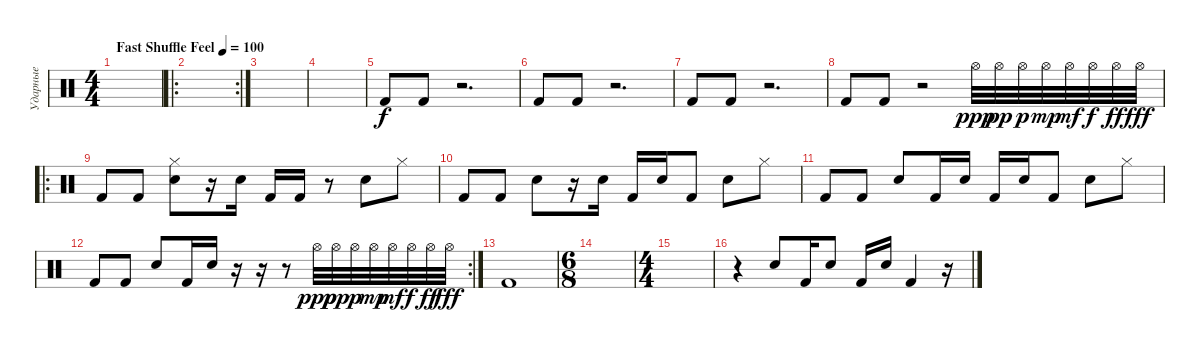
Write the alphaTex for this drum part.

\track ("Ударные" "Ударные") {instrument percussion}
\staff {score}
\articulation defaults
\ts (4 4)
\tempo (100 "Fast Shuffle Feel")
\clef neutral
\ks c
|
\ro
\rc 2
|
|
|
"Kick (hit) 2".8 "Kick (hit) 2".8 r.2{d} |
"Kick (hit) 2".8 "Kick (hit) 2".8 r.2{d} |
"Kick (hit) 2".8 "Kick (hit) 2".8 r.2{d} |
"Kick (hit) 2".8 "Kick (hit) 2".8 r.2 "Hi-Hat (open)".32{dy ppp} "Hi-Hat (open)".32{dy pp} "Hi-Hat (open)".32{dy p} "Hi-Hat (open)".32{dy mp} "Hi-Hat (open)".32{dy mf} "Hi-Hat (open)".32{dy f} "Hi-Hat (open)".32{dy ff} "Hi-Hat (open)".32{dy fff} |
\ro "Kick (hit) 2".8 "Kick (hit) 2".8
("Hi-Hat (closed)" "Snare (hit) 2").8 r.16 "Snare (hit) 2".16 "Kick (hit) 2".16 "Kick (hit) 2".16 r.8 "Snare (hit) 2".8 "Hi-Hat (closed)".8 |
"Kick (hit) 2".8 "Kick (hit) 2".8 "Snare (hit) 2".8 r.16 "Snare (hit) 2".16 "Kick (hit) 2".16 "Snare (hit) 2".16 "Kick (hit) 2".8 "Snare (hit) 2".8 "Hi-Hat (closed)".8 |
"Kick (hit) 2".8 "Kick (hit) 2".8 "Snare (hit) 2".8 "Kick (hit) 2".16 "Snare (hit) 2".16 "Kick (hit) 2".16 "Snare (hit) 2".16 "Kick (hit) 2".8 "Snare (hit) 2".8 "Hi-Hat (closed)".8 |
\rc 2 "Kick (hit) 2".8 "Kick (hit) 2".8 "Snare (hit) 2".8 "Kick (hit) 2".16 "Snare (hit) 2".16
r.16 r.16 r.8 "Hi-Hat (open)".32{dy ppp} "Hi-Hat (open)".32{dy pp} "Hi-Hat (open)".32{dy p} "Hi-Hat (open)".32{dy mp} "Hi-Hat (open)".32{dy mf} "Hi-Hat (open)".32{dy f} "Hi-Hat (open)".32{dy ff} "Hi-Hat (open)".32{dy fff} |
"Kick (hit) 2".1 |
\ts (6 8)
|
\ts (4 4)
|
r.4 "Snare (hit) 2".8 "Kick (hit) 2".16 "Snare (hit) 2".8 "Kick (hit) 2".16 "Snare (hit) 2".16 "Kick (hit) 2".4 r.16
